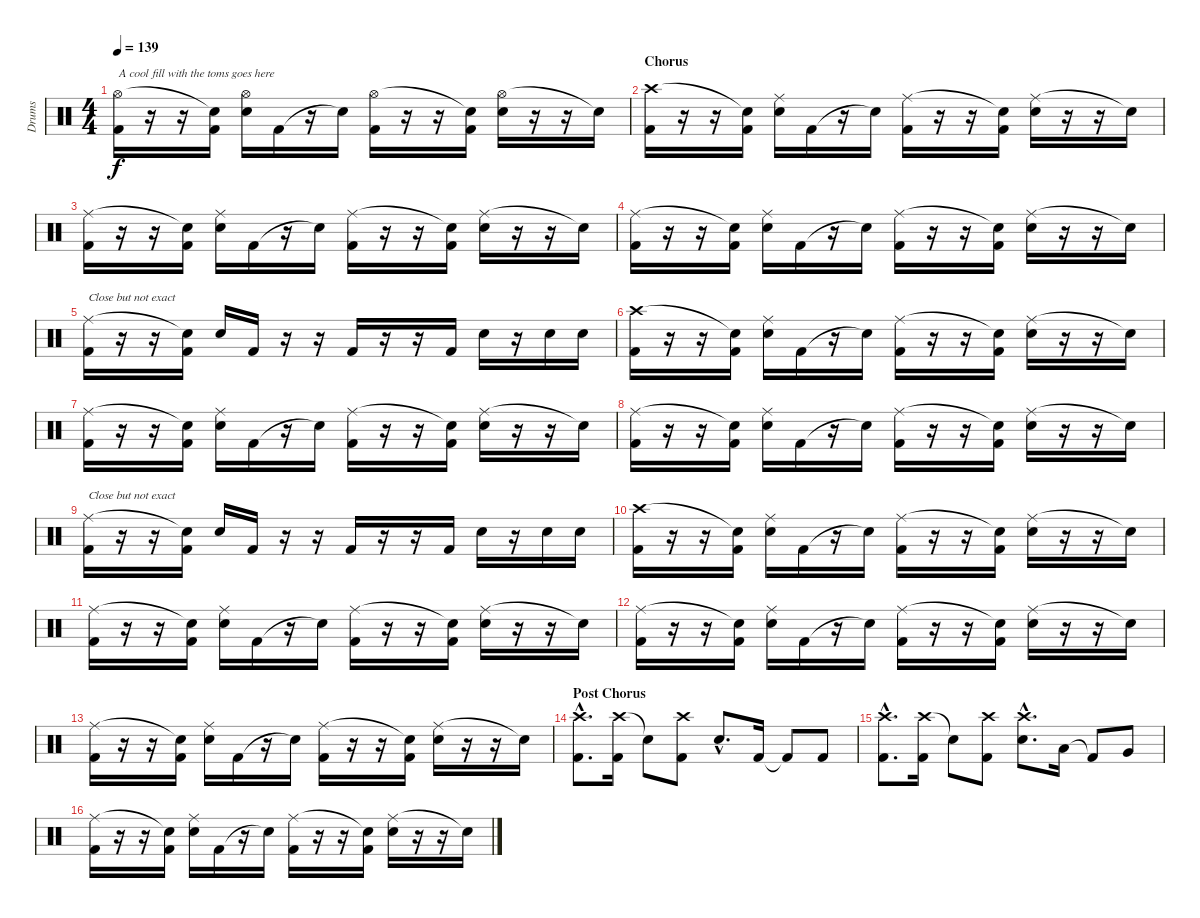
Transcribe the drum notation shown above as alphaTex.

\track ("Drums" "Drums") {instrument percussion}
\staff {score}
\articulation defaults
\ts (4 4)
\tempo 139
\clef neutral
\ks c
("Hi-Hat (open)" "Kick (hit) 2").16{txt "A cool fill with the toms goes here" dy f} r.16 r.16 ("Snare (hit)"{t} "Kick (hit) 2").16 ("Hi-Hat (open)" "Snare (hit) 2").16 "Kick (hit) 2".16 r.16 "Snare (hit)"{t}.16 ("Hi-Hat (open)" "Kick (hit) 2").16 r.16 r.16 ("Snare (hit)"{t} "Kick (hit) 2").16 ("Hi-Hat (open)" "Snare (hit) 2").16 r.16 r.16 "Snare (hit)"{t}.16 |
\section ("" "Chorus")
("Crash high (hit)" "Kick (hit) 2").16 r.16 r.16 ("Snare (hit)"{t} "Kick (hit) 2").16 ("Ride (middle)" "Snare (hit) 2").16 "Kick (hit) 2".16 r.16 "Snare (hit)"{t}.16 ("Ride (middle)" "Kick (hit) 2").16 r.16 r.16 ("Snare (hit)"{t} "Kick (hit) 2").16 ("Ride (middle)" "Snare (hit) 2").16 r.16 r.16 "Snare (hit)"{t}.16 |
("Ride (middle)" "Kick (hit) 2").16 r.16 r.16 ("Snare (hit)"{t} "Kick (hit) 2").16 ("Ride (middle)" "Snare (hit) 2").16 "Kick (hit) 2".16 r.16 "Snare (hit)"{t}.16 ("Ride (middle)" "Kick (hit) 2").16 r.16 r.16 ("Snare (hit)"{t} "Kick (hit) 2").16 ("Ride (middle)" "Snare (hit) 2").16 r.16 r.16 "Snare (hit)"{t}.16 |
("Ride (middle)" "Kick (hit) 2").16 r.16 r.16 ("Snare (hit)"{t} "Kick (hit) 2").16 ("Ride (middle)" "Snare (hit) 2").16 "Kick (hit) 2".16 r.16 "Snare (hit)"{t}.16 ("Ride (middle)" "Kick (hit) 2").16 r.16 r.16 ("Snare (hit)"{t} "Kick (hit) 2").16 ("Ride (middle)" "Snare (hit) 2").16 r.16 r.16 "Snare (hit)"{t}.16 |
("Ride (middle)" "Kick (hit) 2").16{txt "Close but not exact"} r.16 r.16 ("Snare (hit)"{t} "Kick (hit) 2").16 "Snare (hit) 2".16 "Kick (hit) 2".16 r.16 r.16 "Kick (hit) 2".16 r.16 r.16 "Kick (hit) 2".16 "Snare (hit) 2".16 r.16 "Snare (hit) 2".16 "Snare (hit) 2".16 |
("Crash high (hit)" "Kick (hit) 2").16 r.16 r.16 ("Snare (hit)"{t} "Kick (hit) 2").16 ("Ride (middle)" "Snare (hit) 2").16 "Kick (hit) 2".16 r.16 "Snare (hit)"{t}.16 ("Ride (middle)" "Kick (hit) 2").16 r.16 r.16 ("Snare (hit)"{t} "Kick (hit) 2").16 ("Ride (middle)" "Snare (hit) 2").16 r.16 r.16 "Snare (hit)"{t}.16 |
("Ride (middle)" "Kick (hit) 2").16 r.16 r.16 ("Snare (hit)"{t} "Kick (hit) 2").16 ("Ride (middle)" "Snare (hit) 2").16 "Kick (hit) 2".16 r.16 "Snare (hit)"{t}.16 ("Ride (middle)" "Kick (hit) 2").16 r.16 r.16 ("Snare (hit)"{t} "Kick (hit) 2").16 ("Ride (middle)" "Snare (hit) 2").16 r.16 r.16 "Snare (hit)"{t}.16 |
("Ride (middle)" "Kick (hit) 2").16 r.16 r.16 ("Snare (hit)"{t} "Kick (hit) 2").16 ("Ride (middle)" "Snare (hit) 2").16 "Kick (hit) 2".16 r.16 "Snare (hit)"{t}.16 ("Ride (middle)" "Kick (hit) 2").16 r.16 r.16 ("Snare (hit)"{t} "Kick (hit) 2").16 ("Ride (middle)" "Snare (hit) 2").16 r.16 r.16 "Snare (hit)"{t}.16 |
("Ride (middle)" "Kick (hit) 2").16{txt "Close but not exact"} r.16 r.16 ("Snare (hit)"{t} "Kick (hit) 2").16 "Snare (hit) 2".16 "Kick (hit) 2".16 r.16 r.16 "Kick (hit) 2".16 r.16 r.16 "Kick (hit) 2".16 "Snare (hit) 2".16 r.16 "Snare (hit) 2".16 "Snare (hit) 2".16 |
("Crash high (hit)" "Kick (hit) 2").16 r.16 r.16 ("Snare (hit)"{t} "Kick (hit) 2").16 ("Ride (middle)" "Snare (hit) 2").16 "Kick (hit) 2".16 r.16 "Snare (hit)"{t}.16 ("Ride (middle)" "Kick (hit) 2").16 r.16 r.16 ("Snare (hit)"{t} "Kick (hit) 2").16 ("Ride (middle)" "Snare (hit) 2").16 r.16 r.16 "Snare (hit)"{t}.16 |
("Ride (middle)" "Kick (hit) 2").16 r.16 r.16 ("Snare (hit)"{t} "Kick (hit) 2").16 ("Ride (middle)" "Snare (hit) 2").16 "Kick (hit) 2".16 r.16 "Snare (hit)"{t}.16 ("Ride (middle)" "Kick (hit) 2").16 r.16 r.16 ("Snare (hit)"{t} "Kick (hit) 2").16 ("Ride (middle)" "Snare (hit) 2").16 r.16 r.16 "Snare (hit)"{t}.16 |
("Ride (middle)" "Kick (hit) 2").16 r.16 r.16 ("Snare (hit)"{t} "Kick (hit) 2").16 ("Ride (middle)" "Snare (hit) 2").16 "Kick (hit) 2".16 r.16 "Snare (hit)"{t}.16 ("Ride (middle)" "Kick (hit) 2").16 r.16 r.16 ("Snare (hit)"{t} "Kick (hit) 2").16 ("Ride (middle)" "Snare (hit) 2").16 r.16 r.16 "Snare (hit)"{t}.16 |
("Ride (middle)" "Kick (hit) 2").16 r.16 r.16 ("Snare (hit)"{t} "Kick (hit) 2").16 ("Ride (middle)" "Snare (hit) 2").16 "Kick (hit) 2".16 r.16 "Snare (hit)"{t}.16 ("Ride (middle)" "Kick (hit) 2").16 r.16 r.16 ("Snare (hit)"{t} "Kick (hit) 2").16 ("Ride (middle)" "Snare (hit) 2").16 r.16 r.16 "Snare (hit)"{t}.16 |
\section ("" "Post Chorus")
("Crash high (hit)"{hac} "Kick (hit) 2"{hac}).8{d} ("Crash high (hit)" "Kick (hit) 2").16 "Snare (hit)"{t}.8 ("Crash high (hit)" "Kick (hit) 2").8 "Snare (hit) 2"{hac}.8{d} "Kick (hit) 2".16 "Kick (hit) 2"{t}.8 "Kick (hit) 2".8 |
("Crash high (hit)"{hac} "Kick (hit) 2"{hac}).8{d} ("Crash high (hit)" "Kick (hit) 2").16 "Snare (hit)"{t}.8 ("Crash high (hit)" "Kick (hit) 2").8 ("Crash high (hit)"{hac} "Snare (hit) 2"{hac}).8{d} "Low Tom (hit)".16 "Kick (hit) 2"{t}.8 "Very Low Tom (hit)".8 |
("Ride (middle)" "Kick (hit) 2").16 r.16 r.16 ("Snare (hit)"{t} "Kick (hit) 2").16 ("Ride (middle)" "Snare (hit) 2").16 "Kick (hit) 2".16 r.16 "Snare (hit)"{t}.16 ("Ride (middle)" "Kick (hit) 2").16 r.16 r.16 ("Snare (hit)"{t} "Kick (hit) 2").16 ("Ride (middle)" "Snare (hit) 2").16 r.16 r.16 "Snare (hit)"{t}.16
